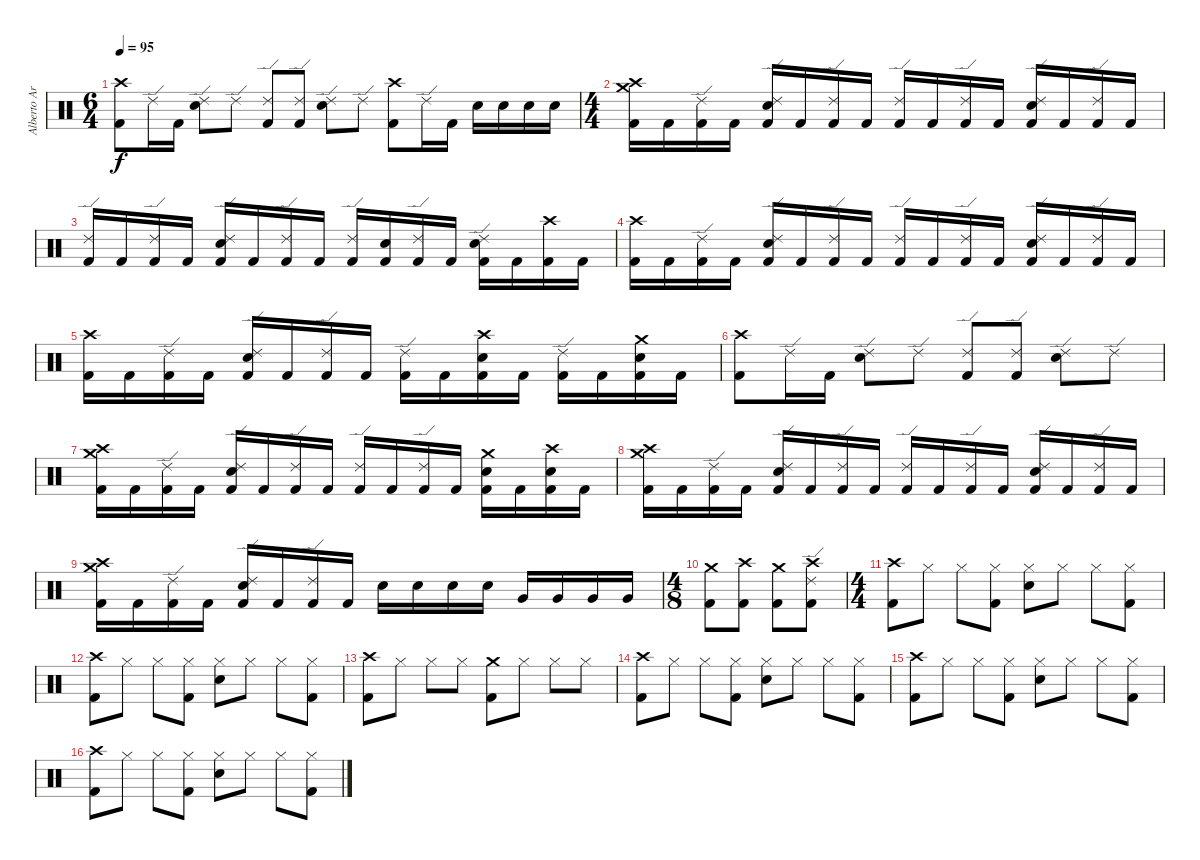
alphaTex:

\track ("Alberto Ardines (Batería)" "Alberto Ar") {instrument percussion}
\staff {score}
\articulation defaults
\ts (6 4)
\tempo 95
\clef neutral
\ks c
("Crash high (hit)" "Kick (hit) 2").8{dy f} "Ride (edge) 2".16 "Kick (hit) 2".16 ("Ride (edge) 2" "Electric Snare (hit)").8 "Ride (edge) 2".8 ("Ride (edge) 2" "Kick (hit) 2").8 ("Ride (edge) 2" "Kick (hit) 2").8 ("Ride (edge) 2" "Electric Snare (hit)").8 "Ride (edge) 2".8 ("Crash high (hit)" "Kick (hit) 2").8 "Ride (edge) 2".16 "Kick (hit) 2".16 "Electric Snare (hit)".16 "Electric Snare (hit)".16 "Electric Snare (hit)".16 "Electric Snare (hit)".16 |
\ts (4 4)
("Crash high (hit)" "Crash medium (hit)" "Kick (hit) 2").16 "Kick (hit) 2".16 ("Ride (edge) 2" "Kick (hit) 2").16 "Kick (hit) 2".16 ("Ride (edge) 2" "Electric Snare (hit)" "Kick (hit) 2").16 "Kick (hit) 2".16 ("Ride (edge) 2" "Kick (hit) 2").16 "Kick (hit) 2".16 ("Ride (edge) 2" "Kick (hit) 2").16 "Kick (hit) 2".16 ("Ride (edge) 2" "Kick (hit) 2").16 "Kick (hit) 2".16 ("Ride (edge) 2" "Electric Snare (hit)" "Kick (hit) 2").16 "Kick (hit) 2".16 ("Ride (edge) 2" "Kick (hit) 2").16 "Kick (hit) 2".16 |
("Ride (edge) 2" "Kick (hit) 2").16 "Kick (hit) 2".16 ("Ride (edge) 2" "Kick (hit) 2").16 "Kick (hit) 2".16 ("Ride (edge) 2" "Electric Snare (hit)" "Kick (hit) 2").16 "Kick (hit) 2".16 ("Ride (edge) 2" "Kick (hit) 2").16 "Kick (hit) 2".16 ("Ride (edge) 2" "Kick (hit) 2").16 ("Electric Snare (hit)" "Kick (hit) 2").16 ("Ride (edge) 2" "Kick (hit) 2").16 "Kick (hit) 2".16 ("Ride (edge) 2" "Electric Snare (hit)" "Kick (hit) 2").16 "Kick (hit) 2".16 ("Crash high (hit)" "Kick (hit) 2").16 "Kick (hit) 2".16 |
("Crash high (hit)" "Kick (hit) 2").16 "Kick (hit) 2".16 ("Ride (edge) 2" "Kick (hit) 2").16 "Kick (hit) 2".16 ("Ride (edge) 2" "Electric Snare (hit)" "Kick (hit) 2").16 "Kick (hit) 2".16 ("Ride (edge) 2" "Kick (hit) 2").16 "Kick (hit) 2".16 ("Ride (edge) 2" "Kick (hit) 2").16 "Kick (hit) 2".16 ("Ride (edge) 2" "Kick (hit) 2").16 "Kick (hit) 2".16 ("Ride (edge) 2" "Electric Snare (hit)" "Kick (hit) 2").16 "Kick (hit) 2".16 ("Ride (edge) 2" "Kick (hit) 2").16 "Kick (hit) 2".16 |
("Crash high (hit)" "Kick (hit) 2").16 "Kick (hit) 2".16 ("Ride (edge) 2" "Kick (hit) 2").16 "Kick (hit) 2".16 ("Ride (edge) 2" "Electric Snare (hit)" "Kick (hit) 2").16 "Kick (hit) 2".16 ("Ride (edge) 2" "Kick (hit) 2").16 "Kick (hit) 2".16 ("Ride (edge) 2" "Kick (hit) 2").16 "Kick (hit) 2".16 ("Crash high (hit)" "Electric Snare (hit)" "Kick (hit) 2").16 "Kick (hit) 2".16 ("Ride (edge) 2" "Kick (hit) 2").16 "Kick (hit) 2".16 ("Crash medium (hit)" "Electric Snare (hit)" "Kick (hit) 2").16 "Kick (hit) 2".16 |
("Crash high (hit)" "Kick (hit) 2").8 "Ride (edge) 2".16 "Kick (hit) 2".16 ("Ride (edge) 2" "Electric Snare (hit)").8 "Ride (edge) 2".8 ("Ride (edge) 2" "Kick (hit) 2").8 ("Ride (edge) 2" "Kick (hit) 2").8 ("Ride (edge) 2" "Electric Snare (hit)").8 "Ride (edge) 2".8 |
("Crash high (hit)" "Crash medium (hit)" "Kick (hit) 2").16 "Kick (hit) 2".16 ("Ride (edge) 2" "Kick (hit) 2").16 "Kick (hit) 2".16 ("Ride (edge) 2" "Electric Snare (hit)" "Kick (hit) 2").16 "Kick (hit) 2".16 ("Ride (edge) 2" "Kick (hit) 2").16 "Kick (hit) 2".16 ("Ride (edge) 2" "Kick (hit) 2").16 "Kick (hit) 2".16 ("Ride (edge) 2" "Kick (hit) 2").16 "Kick (hit) 2".16 ("Crash medium (hit)" "Electric Snare (hit)" "Kick (hit) 2").16 "Kick (hit) 2".16 ("Crash high (hit)" "Electric Snare (hit)" "Kick (hit) 2").16 "Kick (hit) 2".16 |
("Crash high (hit)" "Crash medium (hit)" "Kick (hit) 2").16 "Kick (hit) 2".16 ("Ride (edge) 2" "Kick (hit) 2").16 "Kick (hit) 2".16 ("Ride (edge) 2" "Electric Snare (hit)" "Kick (hit) 2").16 "Kick (hit) 2".16 ("Ride (edge) 2" "Kick (hit) 2").16 "Kick (hit) 2".16 ("Ride (edge) 2" "Kick (hit) 2").16 "Kick (hit) 2".16 ("Ride (edge) 2" "Kick (hit) 2").16 "Kick (hit) 2".16 ("Ride (edge) 2" "Electric Snare (hit)" "Kick (hit) 2").16 "Kick (hit) 2".16 ("Ride (edge) 2" "Kick (hit) 2").16 "Kick (hit) 2".16 |
("Crash high (hit)" "Crash medium (hit)" "Kick (hit) 2").16 "Kick (hit) 2".16 ("Ride (edge) 2" "Kick (hit) 2").16 "Kick (hit) 2".16 ("Ride (edge) 2" "Electric Snare (hit)" "Kick (hit) 2").16 "Kick (hit) 2".16 ("Ride (edge) 2" "Kick (hit) 2").16 "Kick (hit) 2".16 "Electric Snare (hit)".16 "Electric Snare (hit)".16 "Electric Snare (hit)".16 "Electric Snare (hit)".16 "Very Low Tom (hit)".16 "Very Low Tom (hit)".16 "Very Low Tom (hit)".16 "Very Low Tom (hit)".16 |
\ts (4 8)
("Crash medium (hit)" "Kick (hit) 2").8 ("Crash high (hit)" "Kick (hit) 2").8 ("Crash medium (hit)" "Kick (hit) 2").8 ("Ride (edge) 2" "Crash high (hit)" "Kick (hit) 2").8 |
\ts (4 4)
("Crash high (hit)" "Kick (hit) 2").8 "Hi-Hat (closed)".8 "Hi-Hat (closed)".8 ("Hi-Hat (closed)" "Kick (hit) 2").8 ("Hi-Hat (closed)" "Electric Snare (hit)").8 "Hi-Hat (closed)".8 "Hi-Hat (closed)".8 ("Hi-Hat (closed)" "Kick (hit) 2").8 |
("Crash high (hit)" "Kick (hit) 2").8 "Hi-Hat (closed)".8 "Hi-Hat (closed)".8 ("Hi-Hat (closed)" "Kick (hit) 2").8 ("Hi-Hat (closed)" "Electric Snare (hit)").8 "Hi-Hat (closed)".8 "Hi-Hat (closed)".8 ("Hi-Hat (closed)" "Kick (hit) 2").8 |
("Crash high (hit)" "Kick (hit) 2").8 "Hi-Hat (closed)".8 "Hi-Hat (closed)".8 "Hi-Hat (closed)".8 ("Crash medium (hit)" "Kick (hit) 2").8 "Hi-Hat (closed)".8 "Hi-Hat (closed)".8 "Hi-Hat (closed)".8 |
("Crash high (hit)" "Kick (hit) 2").8 "Hi-Hat (closed)".8 "Hi-Hat (closed)".8 ("Hi-Hat (closed)" "Kick (hit) 2").8 ("Hi-Hat (closed)" "Electric Snare (hit)").8 "Hi-Hat (closed)".8 "Hi-Hat (closed)".8 ("Hi-Hat (closed)" "Kick (hit) 2").8 |
("Crash high (hit)" "Kick (hit) 2").8 "Hi-Hat (closed)".8 "Hi-Hat (closed)".8 ("Hi-Hat (closed)" "Kick (hit) 2").8 ("Hi-Hat (closed)" "Electric Snare (hit)").8 "Hi-Hat (closed)".8 "Hi-Hat (closed)".8 ("Hi-Hat (closed)" "Kick (hit) 2").8 |
("Crash high (hit)" "Kick (hit) 2").8 "Hi-Hat (closed)".8 "Hi-Hat (closed)".8 ("Hi-Hat (closed)" "Kick (hit) 2").8 ("Hi-Hat (closed)" "Electric Snare (hit)").8 "Hi-Hat (closed)".8 "Hi-Hat (closed)".8 ("Hi-Hat (closed)" "Kick (hit) 2").8
